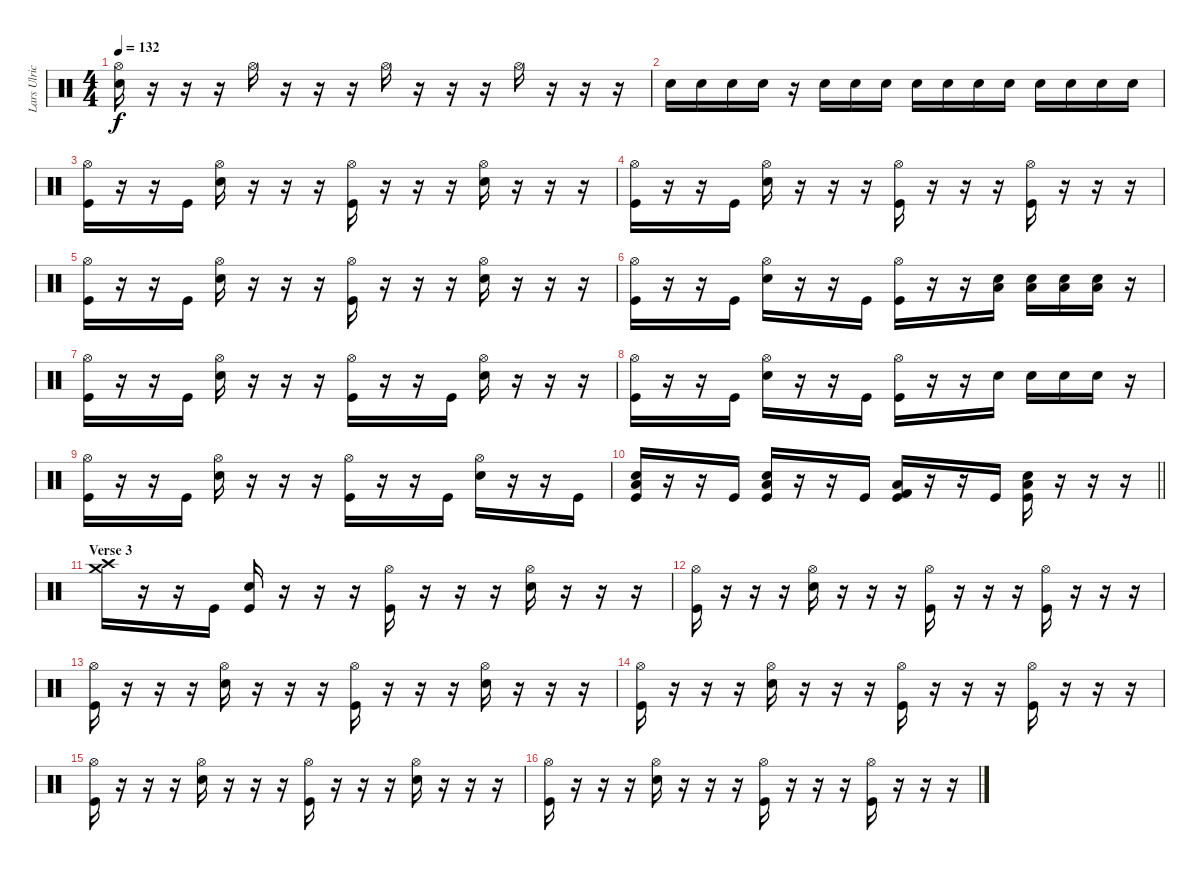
\track ("Lars Ulrich" "Lars Ulric") {instrument percussion}
\staff {score}
\articulation defaults
\ts (4 4)
\tempo 132
\clef neutral
\ks c
("Hi-Hat (open)" "Snare (hit) 2").16{dy f} r.16 r.16 r.16 "Hi-Hat (open)".16 r.16 r.16 r.16 "Hi-Hat (open)".16 r.16 r.16 r.16 "Hi-Hat (open)".16 r.16 r.16 r.16 |
"Snare (hit) 2".16 "Snare (hit) 2".16 "Snare (hit) 2".16 "Snare (hit) 2".16 r.16 "Snare (hit) 2".16 "Snare (hit) 2".16 "Snare (hit) 2".16 "Snare (hit) 2".16 "Snare (hit) 2".16 "Snare (hit) 2".16 "Snare (hit) 2".16 "Snare (hit) 2".16 "Snare (hit) 2".16 "Snare (hit) 2".16 "Snare (hit) 2".16 |
("Hi-Hat (open)" "Kick (hit)").16 r.16 r.16 "Kick (hit)".16 ("Hi-Hat (open)" "Snare (hit) 2").16 r.16 r.16 r.16 ("Hi-Hat (open)" "Kick (hit)").16 r.16 r.16 r.16 ("Hi-Hat (open)" "Snare (hit) 2").16 r.16 r.16 r.16 |
("Hi-Hat (open)" "Kick (hit)").16 r.16 r.16 "Kick (hit)".16 ("Hi-Hat (open)" "Snare (hit) 2").16 r.16 r.16 r.16 ("Hi-Hat (open)" "Kick (hit)").16 r.16 r.16 r.16 ("Hi-Hat (open)" "Kick (hit)").16 r.16 r.16 r.16 |
("Hi-Hat (open)" "Kick (hit)").16 r.16 r.16 "Kick (hit)".16 ("Hi-Hat (open)" "Snare (hit) 2").16 r.16 r.16 r.16 ("Hi-Hat (open)" "Kick (hit)").16 r.16 r.16 r.16 ("Hi-Hat (open)" "Snare (hit) 2").16 r.16 r.16 r.16 |
("Hi-Hat (open)" "Kick (hit)").16 r.16 r.16 "Kick (hit)".16 ("Hi-Hat (open)" "Snare (hit) 2").16 r.16 r.16 "Kick (hit)".16 ("Hi-Hat (open)" "Kick (hit)").16 r.16 r.16 ("Snare (hit) 2" "Low Floor Tom (hit)").16 ("Snare (hit) 2" "Low Floor Tom (hit)").16 ("Snare (hit) 2" "Low Floor Tom (hit)").16 ("Snare (hit) 2" "Low Floor Tom (hit)").16 r.16 |
("Hi-Hat (open)" "Kick (hit)").16 r.16 r.16 "Kick (hit)".16 ("Hi-Hat (open)" "Snare (hit) 2").16 r.16 r.16 r.16 ("Hi-Hat (open)" "Kick (hit)").16 r.16 r.16 "Kick (hit)".16 ("Hi-Hat (open)" "Snare (hit) 2").16 r.16 r.16 r.16 |
("Hi-Hat (open)" "Kick (hit)").16 r.16 r.16 "Kick (hit)".16 ("Hi-Hat (open)" "Snare (hit) 2").16 r.16 r.16 "Kick (hit)".16 ("Hi-Hat (open)" "Kick (hit)").16 r.16 r.16 "Snare (hit) 2".16 "Snare (hit) 2".16 "Snare (hit) 2".16 "Snare (hit) 2".16 r.16 |
("Hi-Hat (open)" "Kick (hit)").16 r.16 r.16 "Kick (hit)".16 ("Hi-Hat (open)" "Snare (hit) 2").16 r.16 r.16 r.16 ("Hi-Hat (open)" "Kick (hit)").16 r.16 r.16 "Kick (hit)".16 ("Hi-Hat (open)" "Snare (hit) 2").16 r.16 r.16 "Kick (hit)".16 |
\barLineRight lightlight
("Kick (hit)" "Snare (hit) 2" "Low Floor Tom (hit)").16 r.16 r.16 "Kick (hit)".16 ("Kick (hit)" "Snare (hit) 2" "Low Floor Tom (hit)").16 r.16 r.16 "Kick (hit)".16 ("Kick (hit)" "Kick (hit) 2" "Low Floor Tom (hit)").16 r.16 r.16 "Kick (hit)".16 ("Kick (hit)" "Snare (hit) 2" "Low Floor Tom (hit)").16 r.16 r.16 r.16 |
\section ("" "Verse 3")
("Crash medium (hit)" "Crash high (hit)").16 r.16 r.16 "Kick (hit)".16 ("Kick (hit)" "Snare (hit) 2").16 r.16 r.16 r.16 ("Hi-Hat (open)" "Kick (hit)").16 r.16 r.16 r.16 ("Hi-Hat (open)" "Snare (hit) 2").16 r.16 r.16 r.16 |
("Hi-Hat (open)" "Kick (hit)").16 r.16 r.16 r.16 ("Hi-Hat (open)" "Snare (hit) 2").16 r.16 r.16 r.16 ("Hi-Hat (open)" "Kick (hit)").16 r.16 r.16 r.16 ("Hi-Hat (open)" "Kick (hit)").16 r.16 r.16 r.16 |
("Hi-Hat (open)" "Kick (hit)").16 r.16 r.16 r.16 ("Hi-Hat (open)" "Snare (hit) 2").16 r.16 r.16 r.16 ("Hi-Hat (open)" "Kick (hit)").16 r.16 r.16 r.16 ("Hi-Hat (open)" "Snare (hit) 2").16 r.16 r.16 r.16 |
("Hi-Hat (open)" "Kick (hit)").16 r.16 r.16 r.16 ("Hi-Hat (open)" "Snare (hit) 2").16 r.16 r.16 r.16 ("Hi-Hat (open)" "Kick (hit)").16 r.16 r.16 r.16 ("Hi-Hat (open)" "Kick (hit)").16 r.16 r.16 r.16 |
("Hi-Hat (open)" "Kick (hit)").16 r.16 r.16 r.16 ("Hi-Hat (open)" "Snare (hit) 2").16 r.16 r.16 r.16 ("Hi-Hat (open)" "Kick (hit)").16 r.16 r.16 r.16 ("Hi-Hat (open)" "Snare (hit) 2").16 r.16 r.16 r.16 |
("Hi-Hat (open)" "Kick (hit)").16 r.16 r.16 r.16 ("Hi-Hat (open)" "Snare (hit) 2").16 r.16 r.16 r.16 ("Hi-Hat (open)" "Kick (hit)").16 r.16 r.16 r.16 ("Hi-Hat (open)" "Kick (hit)").16 r.16 r.16 r.16
